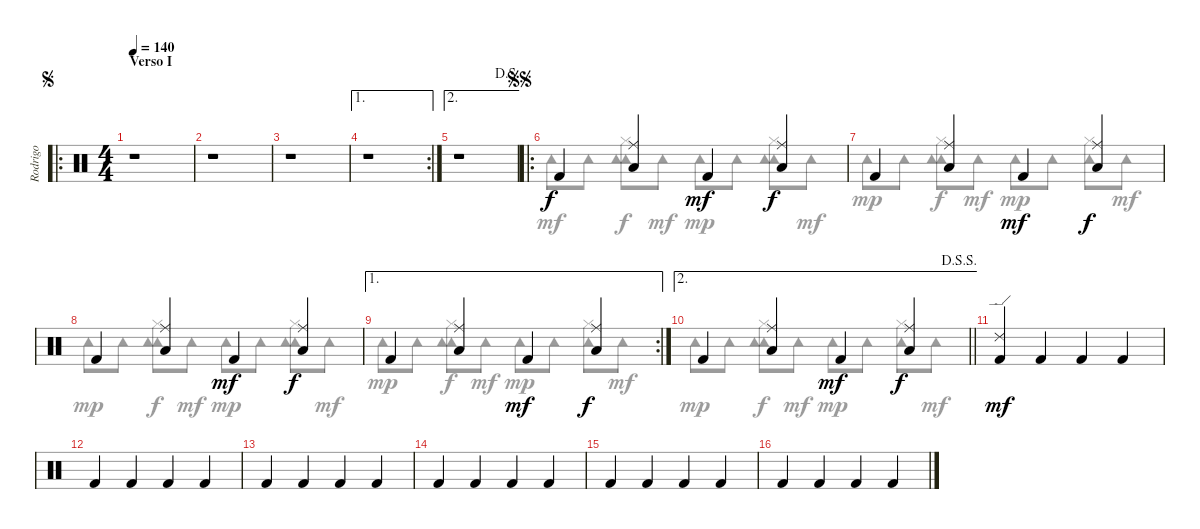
\track ("Rodrigo" "Rodrigo") {instrument percussion}
\staff {score}
\articulation defaults
\voice
\ro
\ts (4 4)
\section ("" "Verso I")
\jump segno
\tempo 140
\clef neutral
\ks c
r.1{dy f} |
r.1 |
r.1 |
\ae 1
\rc 2
r.1 |
\ae 2
\jump dalsegno
r.1 |
\ro
\jump segnosegno "Kick (hit) 2".4
("Ride (middle)" "Low Floor Tom (hit)").4 "Kick (hit) 2".4{dy mf} ("Ride (middle)" "Low Floor Tom (hit)").4{dy f} |
"Kick (hit) 2".4 ("Ride (middle)" "Low Floor Tom (hit)").4 "Kick (hit) 2".4{dy mf} ("Ride (middle)" "Low Floor Tom (hit)").4{dy f} |
"Kick (hit) 2".4 ("Ride (middle)" "Low Floor Tom (hit)").4 "Kick (hit) 2".4{dy mf} ("Ride (middle)" "Low Floor Tom (hit)").4{dy f} |
\ae 1
\rc 2 "Kick (hit) 2".4
("Ride (middle)" "Low Floor Tom (hit)").4 "Kick (hit) 2".4{dy mf} ("Ride (middle)" "Low Floor Tom (hit)").4{dy f} |
\ae 2
\jump dalsegnosegno
\barLineRight lightlight "Kick (hit) 2".4
("Ride (middle)" "Low Floor Tom (hit)").4 "Kick (hit) 2".4{dy mf} ("Ride (middle)" "Low Floor Tom (hit)").4{dy f} |
("Ride (edge) 2" "Kick (hit) 2").4{dy mf} "Kick (hit) 2".4 "Kick (hit) 2".4 "Kick (hit) 2".4 |
"Kick (hit) 2".4 "Kick (hit) 2".4 "Kick (hit) 2".4 "Kick (hit) 2".4 |
"Kick (hit) 2".4 "Kick (hit) 2".4 "Kick (hit) 2".4 "Kick (hit) 2".4 |
"Kick (hit) 2".4 "Kick (hit) 2".4 "Kick (hit) 2".4 "Kick (hit) 2".4 |
"Kick (hit) 2".4 "Kick (hit) 2".4 "Kick (hit) 2".4 "Kick (hit) 2".4 |
"Kick (hit) 2".4 "Kick (hit) 2".4 "Kick (hit) 2".4 "Kick (hit) 2".4
\voice
\clef neutral
\ottava regular
\simile none
\ks c
|
|
|
|
|
"Tambourine (hit)".8 "Tambourine (hit)".8 ("Tambourine (hit)" "Tambourine (hit)" "Hi-Hat (closed)").8{dy f} "Tambourine (hit)".8{dy mf} "Tambourine (hit)".8{dy mp} "Tambourine (hit)".8 ("Tambourine (hit)" "Tambourine (hit)" "Hi-Hat (closed)").8{dy f} "Tambourine (hit)".8{dy mf} |
"Tambourine (hit)".8{dy mp} "Tambourine (hit)".8 ("Tambourine (hit)" "Tambourine (hit)" "Hi-Hat (closed)").8{dy f} "Tambourine (hit)".8{dy mf} "Tambourine (hit)".8{dy mp} "Tambourine (hit)".8 ("Tambourine (hit)" "Hi-Hat (closed)").8{dy f} "Tambourine (hit)".8{dy mf} |
"Tambourine (hit)".8{dy mp} "Tambourine (hit)".8 ("Tambourine (hit)" "Tambourine (hit)" "Hi-Hat (closed)").8{dy f} "Tambourine (hit)".8{dy mf} "Tambourine (hit)".8{dy mp} "Tambourine (hit)".8 ("Tambourine (hit)" "Tambourine (hit)" "Hi-Hat (closed)").8{dy f} "Tambourine (hit)".8{dy mf} |
"Tambourine (hit)".8{dy mp} "Tambourine (hit)".8 ("Tambourine (hit)" "Tambourine (hit)" "Hi-Hat (closed)").8{dy f} "Tambourine (hit)".8{dy mf} "Tambourine (hit)".8{dy mp} "Tambourine (hit)".8 ("Tambourine (hit)" "Hi-Hat (closed)").8{dy f} "Tambourine (hit)".8{dy mf} |
\barLineRight lightlight "Tambourine (hit)".8{dy mp} "Tambourine (hit)".8
("Tambourine (hit)" "Tambourine (hit)" "Hi-Hat (closed)").8{dy f} "Tambourine (hit)".8{dy mf} "Tambourine (hit)".8{dy mp} "Tambourine (hit)".8 ("Tambourine (hit)" "Hi-Hat (closed)").8{dy f} "Tambourine (hit)".8{dy mf} |
|
|
|
|
|
